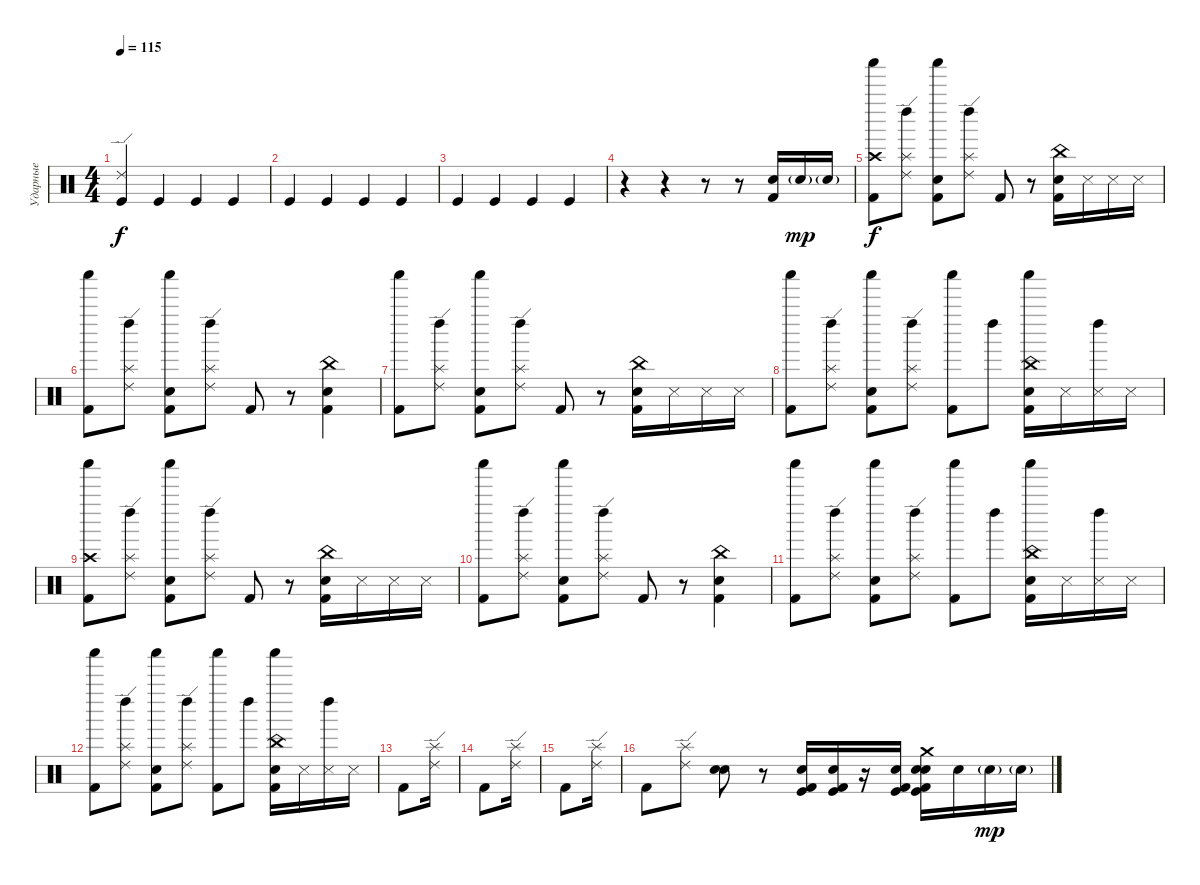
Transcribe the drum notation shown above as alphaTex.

\track ("Ударные" "Ударные") {instrument percussion}
\staff {score}
\articulation defaults
\ts (4 4)
\tempo 115
\clef neutral
\ks c
("Kick (hit)" "Ride (edge) 2").4{dy f} "Kick (hit)".4 "Kick (hit)".4 "Kick (hit)".4 |
"Kick (hit)".4 "Kick (hit)".4 "Kick (hit)".4 "Kick (hit)".4 |
"Kick (hit)".4 "Kick (hit)".4 "Kick (hit)".4 "Kick (hit)".4 |
r.4 r.4 r.8 r.8 ("Snare (hit) 2" "Kick (hit) 2").16 "Snare (hit) 2"{g}.16{dy mp} "Snare (hit) 2"{g}.16 |
("Kick (hit) 2" "Shaker (hit)" "Crash high (hit)").8{dy f} ("Left Maraca (hit)" "Ride (edge) 2" "Splash (hit)").8 ("Kick (hit) 2" "Snare (hit) 2" "Shaker (hit)").8 ("Left Maraca (hit)" "Ride (edge) 2" "Splash (hit)").8 "Kick (hit) 2".8 r.8 ("Kick (hit) 2" "China (hit)" "Snare (hit) 2").16 "Snare (side stick) 3".16 "Snare (side stick) 3".16 "Snare (side stick) 3".16 |
("Kick (hit) 2" "Shaker (hit)").8 ("Left Maraca (hit)" "Ride (edge) 2" "Splash (hit)").8 ("Kick (hit) 2" "Snare (hit) 2" "Shaker (hit)").8 ("Left Maraca (hit)" "Ride (edge) 2" "Splash (hit)").8 "Kick (hit) 2".8 r.8 ("Kick (hit) 2" "China (hit)" "Snare (hit) 2").4 |
("Kick (hit) 2" "Shaker (hit)").8 ("Left Maraca (hit)" "Ride (edge) 2" "Splash (hit)").8 ("Kick (hit) 2" "Snare (hit) 2" "Shaker (hit)").8 ("Left Maraca (hit)" "Ride (edge) 2" "Splash (hit)").8 "Kick (hit) 2".8 r.8 ("Kick (hit) 2" "China (hit)" "Snare (hit) 2").16 "Snare (side stick) 3".16 "Snare (side stick) 3".16 "Snare (side stick) 3".16 |
("Kick (hit) 2" "Shaker (hit)").8 ("Left Maraca (hit)" "Ride (edge) 2" "Splash (hit)").8 ("Kick (hit) 2" "Snare (hit) 2" "Shaker (hit)").8 ("Left Maraca (hit)" "Ride (edge) 2" "Splash (hit)").8 ("Kick (hit) 2" "Shaker (hit)").8 "Left Maraca (hit)".8 ("Kick (hit) 2" "China (hit)" "Snare (hit) 2" "Shaker (hit)").16 "Snare (side stick) 3".16 ("Snare (side stick) 3" "Left Maraca (hit)").16 "Snare (side stick) 3".16 |
("Kick (hit) 2" "Shaker (hit)" "Crash high (hit)").8 ("Left Maraca (hit)" "Ride (edge) 2" "Splash (hit)").8 ("Kick (hit) 2" "Snare (hit) 2" "Shaker (hit)").8 ("Left Maraca (hit)" "Ride (edge) 2" "Splash (hit)").8 "Kick (hit) 2".8 r.8 ("Kick (hit) 2" "China (hit)" "Snare (hit) 2").16 "Snare (side stick) 3".16 "Snare (side stick) 3".16 "Snare (side stick) 3".16 |
("Kick (hit) 2" "Shaker (hit)").8 ("Left Maraca (hit)" "Ride (edge) 2" "Splash (hit)").8 ("Kick (hit) 2" "Snare (hit) 2" "Shaker (hit)").8 ("Left Maraca (hit)" "Ride (edge) 2" "Splash (hit)").8 "Kick (hit) 2".8 r.8 ("Kick (hit) 2" "China (hit)" "Snare (hit) 2").4 |
("Kick (hit) 2" "Shaker (hit)").8 ("Left Maraca (hit)" "Ride (edge) 2" "Splash (hit)").8 ("Kick (hit) 2" "Snare (hit) 2" "Shaker (hit)").8 ("Left Maraca (hit)" "Ride (edge) 2" "Splash (hit)").8 ("Kick (hit) 2" "Shaker (hit)").8 "Left Maraca (hit)".8 ("Kick (hit) 2" "China (hit)" "Snare (hit) 2" "Shaker (hit)").16 "Snare (side stick) 3".16 ("Snare (side stick) 3" "Left Maraca (hit)").16 "Snare (side stick) 3".16 |
("Kick (hit) 2" "Shaker (hit)").8 ("Left Maraca (hit)" "Ride (edge) 2" "Splash (hit)").8 ("Kick (hit) 2" "Snare (hit) 2" "Shaker (hit)").8 ("Left Maraca (hit)" "Ride (edge) 2" "Splash (hit)").8 ("Kick (hit) 2" "Shaker (hit)").8 "Left Maraca (hit)".8 ("Kick (hit) 2" "China (hit)" "Snare (hit) 2" "Shaker (hit)").16 "Snare (side stick) 3".16 ("Snare (side stick) 3" "Left Maraca (hit)").16 "Snare (side stick) 3".16 |
"Kick (hit) 2".8 ("Ride (edge) 2" "Splash (hit)").16 |
"Kick (hit) 2".8 ("Ride (edge) 2" "Splash (hit)").16 |
"Kick (hit) 2".8 ("Ride (edge) 2" "Splash (hit)").16 |
"Kick (hit) 2".8 ("Ride (edge) 2" "Splash (hit)").8 ("Electric Snare (hit)" "Hand Clap (hit)").8 r.8 ("Kick (hit) 2" "Kick (hit)" "Snare (hit) 2").16 ("Kick (hit) 2" "Kick (hit)" "Snare (hit) 2").16 r.16 ("Kick (hit) 2" "Kick (hit)" "Snare (hit) 2").16 ("Kick (hit) 2" "Kick (hit)" "Snare (hit) 2" "Crash medium (hit)" "Hand Clap (hit)").16 "Snare (hit) 2".16 "Snare (hit) 2"{g}.16{dy mp} "Snare (hit) 2"{g}.16
